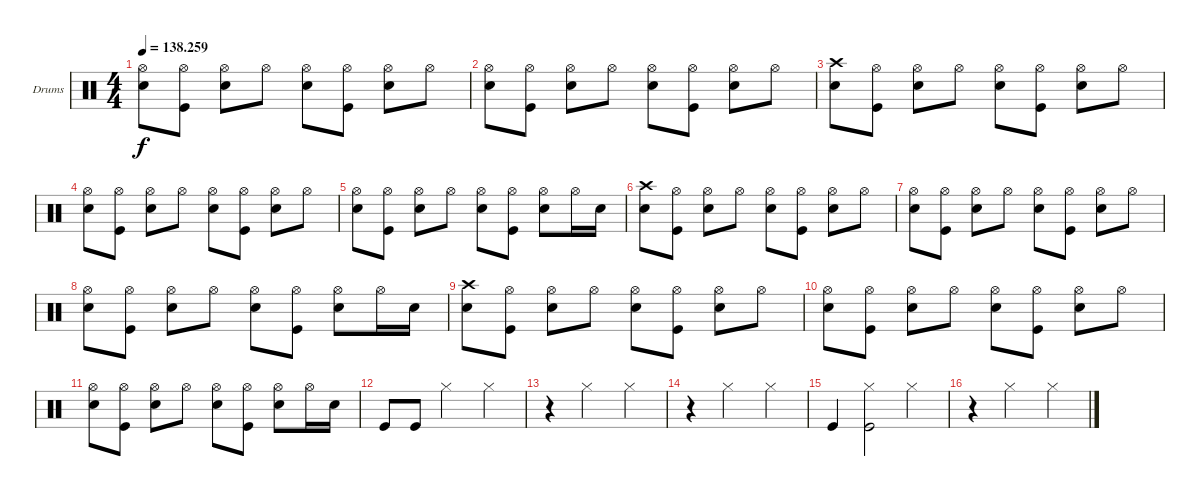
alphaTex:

\bracketExtendMode groupsimilarinstruments
\firstSystemTrackNameOrientation horizontal
\otherSystemsTrackNameOrientation horizontal
\track ("Drumkit" "Drums") {instrument percussion}
\staff {score}
\articulation defaults
\ts (4 4)
\tempo
138.259
\accidentals auto
\clef neutral
\ottava regular
\simile none
\ks c
("Hi-Hat (open)" "Snare (hit) 2").8{dy f} ("Hi-Hat (open)" "Kick (hit)").8 ("Hi-Hat (open)" "Snare (hit) 2").8 "Hi-Hat (open)".8 ("Hi-Hat (open)" "Snare (hit) 2").8 ("Hi-Hat (open)" "Kick (hit)").8 ("Hi-Hat (open)" "Snare (hit) 2").8 "Hi-Hat (open)".8 |
("Hi-Hat (open)" "Snare (hit) 2").8 ("Hi-Hat (open)" "Kick (hit)").8 ("Hi-Hat (open)" "Snare (hit) 2").8 "Hi-Hat (open)".8 ("Hi-Hat (open)" "Snare (hit) 2").8 ("Hi-Hat (open)" "Kick (hit)").8 ("Hi-Hat (open)" "Snare (hit) 2").8 "Hi-Hat (open)".8 |
("Crash high (hit)" "Snare (hit) 2").8 ("Hi-Hat (open)" "Kick (hit)").8 ("Hi-Hat (open)" "Snare (hit) 2").8 "Hi-Hat (open)".8 ("Hi-Hat (open)" "Snare (hit) 2").8 ("Hi-Hat (open)" "Kick (hit)").8 ("Hi-Hat (open)" "Snare (hit) 2").8 "Hi-Hat (open)".8 |
("Hi-Hat (open)" "Snare (hit) 2").8 ("Hi-Hat (open)" "Kick (hit)").8 ("Hi-Hat (open)" "Snare (hit) 2").8 "Hi-Hat (open)".8 ("Hi-Hat (open)" "Snare (hit) 2").8 ("Hi-Hat (open)" "Kick (hit)").8 ("Hi-Hat (open)" "Snare (hit) 2").8 "Hi-Hat (open)".8 |
("Hi-Hat (open)" "Snare (hit) 2").8 ("Hi-Hat (open)" "Kick (hit)").8 ("Hi-Hat (open)" "Snare (hit) 2").8 "Hi-Hat (open)".8 ("Hi-Hat (open)" "Snare (hit) 2").8 ("Hi-Hat (open)" "Kick (hit)").8 ("Hi-Hat (open)" "Snare (hit) 2").8 "Hi-Hat (open)".16 "Snare (hit) 2".16 |
("Crash high (hit)" "Snare (hit) 2").8 ("Hi-Hat (open)" "Kick (hit)").8 ("Hi-Hat (open)" "Snare (hit) 2").8 "Hi-Hat (open)".8 ("Hi-Hat (open)" "Snare (hit) 2").8 ("Hi-Hat (open)" "Kick (hit)").8 ("Hi-Hat (open)" "Snare (hit) 2").8 "Hi-Hat (open)".8 |
("Hi-Hat (open)" "Snare (hit) 2").8 ("Hi-Hat (open)" "Kick (hit)").8 ("Hi-Hat (open)" "Snare (hit) 2").8 "Hi-Hat (open)".8 ("Hi-Hat (open)" "Snare (hit) 2").8 ("Hi-Hat (open)" "Kick (hit)").8 ("Hi-Hat (open)" "Snare (hit) 2").8 "Hi-Hat (open)".8 |
("Hi-Hat (open)" "Snare (hit) 2").8 ("Hi-Hat (open)" "Kick (hit)").8 ("Hi-Hat (open)" "Snare (hit) 2").8 "Hi-Hat (open)".8 ("Hi-Hat (open)" "Snare (hit) 2").8 ("Hi-Hat (open)" "Kick (hit)").8 ("Hi-Hat (open)" "Snare (hit) 2").8 "Hi-Hat (open)".16 "Snare (hit) 2".16 |
("Crash high (hit)" "Snare (hit) 2").8 ("Hi-Hat (open)" "Kick (hit)").8 ("Hi-Hat (open)" "Snare (hit) 2").8 "Hi-Hat (open)".8 ("Hi-Hat (open)" "Snare (hit) 2").8 ("Hi-Hat (open)" "Kick (hit)").8 ("Hi-Hat (open)" "Snare (hit) 2").8 "Hi-Hat (open)".8 |
("Hi-Hat (open)" "Snare (hit) 2").8 ("Hi-Hat (open)" "Kick (hit)").8 ("Hi-Hat (open)" "Snare (hit) 2").8 "Hi-Hat (open)".8 ("Hi-Hat (open)" "Snare (hit) 2").8 ("Hi-Hat (open)" "Kick (hit)").8 ("Hi-Hat (open)" "Snare (hit) 2").8 "Hi-Hat (open)".8 |
("Hi-Hat (open)" "Snare (hit) 2").8 ("Hi-Hat (open)" "Kick (hit)").8 ("Hi-Hat (open)" "Snare (hit) 2").8 "Hi-Hat (open)".8 ("Hi-Hat (open)" "Snare (hit) 2").8 ("Hi-Hat (open)" "Kick (hit)").8 ("Hi-Hat (open)" "Snare (hit) 2").8 "Hi-Hat (open)".16 "Snare (hit) 2".16 |
"Kick (hit)".8 "Kick (hit)".8 "Hi-Hat (closed)".2 "Hi-Hat (closed)".4 |
r.4 "Hi-Hat (closed)".2 "Hi-Hat (closed)".4 |
r.4 "Hi-Hat (closed)".2 "Hi-Hat (closed)".4 |
"Kick (hit)".4 ("Hi-Hat (closed)" "Kick (hit)").2 "Hi-Hat (closed)".4 |
r.4 "Hi-Hat (closed)".2 "Hi-Hat (closed)".4
